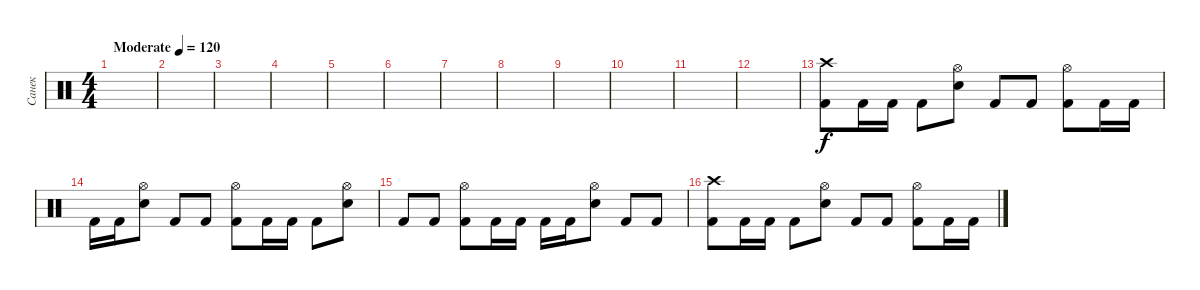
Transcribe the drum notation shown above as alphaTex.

\track ("Санек" "Санек") {instrument percussion}
\staff {score}
\articulation defaults
\ts (4 4)
\tempo (120 "Moderate")
\clef neutral
\ks c
|
|
|
|
|
|
|
|
|
|
|
|
("Crash high (hit)" "Kick (hit) 2").8 "Kick (hit) 2".16 "Kick (hit) 2".16 "Kick (hit) 2".8 ("Hi-Hat (open)" "Electric Snare (hit)").8 "Kick (hit) 2".8 "Kick (hit) 2".8 ("Hi-Hat (open)" "Kick (hit) 2").8 "Kick (hit) 2".16 "Kick (hit) 2".16 |
"Kick (hit) 2".16 "Kick (hit) 2".16 ("Hi-Hat (open)" "Electric Snare (hit)").8 "Kick (hit) 2".8 "Kick (hit) 2".8 ("Hi-Hat (open)" "Kick (hit) 2").8 "Kick (hit) 2".16 "Kick (hit) 2".16 "Kick (hit) 2".8 ("Hi-Hat (open)" "Electric Snare (hit)").8 |
"Kick (hit) 2".8 "Kick (hit) 2".8 ("Hi-Hat (open)" "Kick (hit) 2").8 "Kick (hit) 2".16 "Kick (hit) 2".16 "Kick (hit) 2".16 "Kick (hit) 2".16 ("Hi-Hat (open)" "Electric Snare (hit)").8 "Kick (hit) 2".8 "Kick (hit) 2".8 |
("Crash high (hit)" "Kick (hit) 2").8 "Kick (hit) 2".16 "Kick (hit) 2".16 "Kick (hit) 2".8 ("Hi-Hat (open)" "Electric Snare (hit)").8 "Kick (hit) 2".8 "Kick (hit) 2".8 ("Hi-Hat (open)" "Kick (hit) 2").8 "Kick (hit) 2".16 "Kick (hit) 2".16
